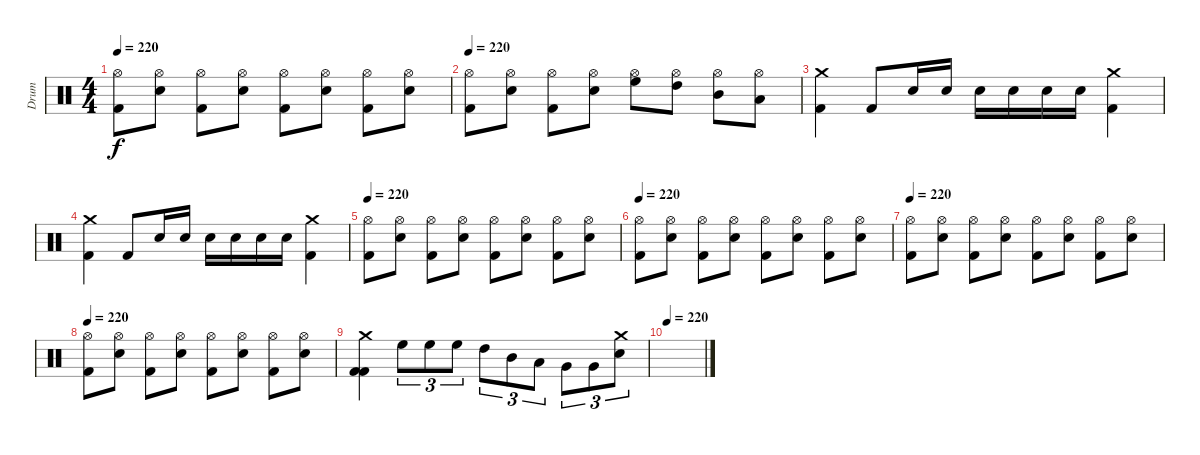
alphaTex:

\track ("Drum" "Drum") {instrument percussion}
\staff {score}
\articulation defaults
\ts (4 4)
\tempo 220
\clef neutral
\ks c
("Hi-Hat (open)" "Kick (hit) 2").8{dy f} ("Hi-Hat (open)" "Snare (hit) 2").8 ("Hi-Hat (open)" "Kick (hit) 2").8 ("Hi-Hat (open)" "Snare (hit) 2").8 ("Hi-Hat (open)" "Kick (hit) 2").8 ("Hi-Hat (open)" "Snare (hit) 2").8 ("Hi-Hat (open)" "Kick (hit) 2").8 ("Hi-Hat (open)" "Snare (hit) 2").8 |
\tempo 220
("Hi-Hat (open)" "Kick (hit) 2").8 ("Hi-Hat (open)" "Snare (hit) 2").8 ("Hi-Hat (open)" "Kick (hit) 2").8 ("Hi-Hat (open)" "Snare (hit) 2").8 ("Hi-Hat (open)" "High Floor Tom (hit)").8 ("Hi-Hat (open)" "High Tom (hit)").8 ("Hi-Hat (open)" "Mid Tom (hit)").8 ("Hi-Hat (open)" "Low Tom (hit)").8 |
("Crash medium (hit)" "Kick (hit) 2").4 "Kick (hit) 2".8 "Snare (hit) 2".16 "Snare (hit) 2".16 "Snare (hit) 2".16 "Snare (hit) 2".16 "Snare (hit) 2".16 "Snare (hit) 2".16 ("Crash medium (hit)" "Kick (hit) 2").4 |
("Crash medium (hit)" "Kick (hit) 2").4 "Kick (hit) 2".8 "Snare (hit) 2".16 "Snare (hit) 2".16 "Snare (hit) 2".16 "Snare (hit) 2".16 "Snare (hit) 2".16 "Snare (hit) 2".16 ("Crash medium (hit)" "Kick (hit) 2").4 |
\tempo 220
("Hi-Hat (open)" "Kick (hit) 2").8 ("Hi-Hat (open)" "Snare (hit) 2").8 ("Hi-Hat (open)" "Kick (hit) 2").8 ("Hi-Hat (open)" "Snare (hit) 2").8 ("Hi-Hat (open)" "Kick (hit) 2").8 ("Hi-Hat (open)" "Snare (hit) 2").8 ("Hi-Hat (open)" "Kick (hit) 2").8 ("Hi-Hat (open)" "Snare (hit) 2").8 |
\tempo 220
("Hi-Hat (open)" "Kick (hit) 2").8 ("Hi-Hat (open)" "Snare (hit) 2").8 ("Hi-Hat (open)" "Kick (hit) 2").8 ("Hi-Hat (open)" "Snare (hit) 2").8 ("Hi-Hat (open)" "Kick (hit) 2").8 ("Hi-Hat (open)" "Snare (hit) 2").8 ("Hi-Hat (open)" "Kick (hit) 2").8 ("Hi-Hat (open)" "Snare (hit) 2").8 |
\tempo 220
("Hi-Hat (open)" "Kick (hit) 2").8 ("Hi-Hat (open)" "Snare (hit) 2").8 ("Hi-Hat (open)" "Kick (hit) 2").8 ("Hi-Hat (open)" "Snare (hit) 2").8 ("Hi-Hat (open)" "Kick (hit) 2").8 ("Hi-Hat (open)" "Snare (hit) 2").8 ("Hi-Hat (open)" "Kick (hit) 2").8 ("Hi-Hat (open)" "Snare (hit) 2").8 |
\tempo 220
("Hi-Hat (open)" "Kick (hit) 2").8 ("Hi-Hat (open)" "Snare (hit) 2").8 ("Hi-Hat (open)" "Kick (hit) 2").8 ("Hi-Hat (open)" "Snare (hit) 2").8 ("Hi-Hat (open)" "Kick (hit) 2").8 ("Hi-Hat (open)" "Snare (hit) 2").8 ("Hi-Hat (open)" "Kick (hit) 2").8 ("Hi-Hat (open)" "Snare (hit) 2").8 |
("Crash medium (hit)" "Kick (hit) 2" "Kick (hit) 2").4 "High Floor Tom (hit)".8{tu (3 2)} "High Floor Tom (hit)".8{tu (3 2)} "High Floor Tom (hit)".8{tu (3 2)} "High Tom (hit)".8{tu (3 2)} "Mid Tom (hit)".8{tu (3 2)} "Low Tom (hit)".8{tu (3 2)} "Very Low Tom (hit)".8{tu (3 2)} "Very Low Tom (hit)".8{tu (3 2)} ("Crash medium (hit)" "Snare (hit) 2").8{tu (3 2)} |
\tempo 220
